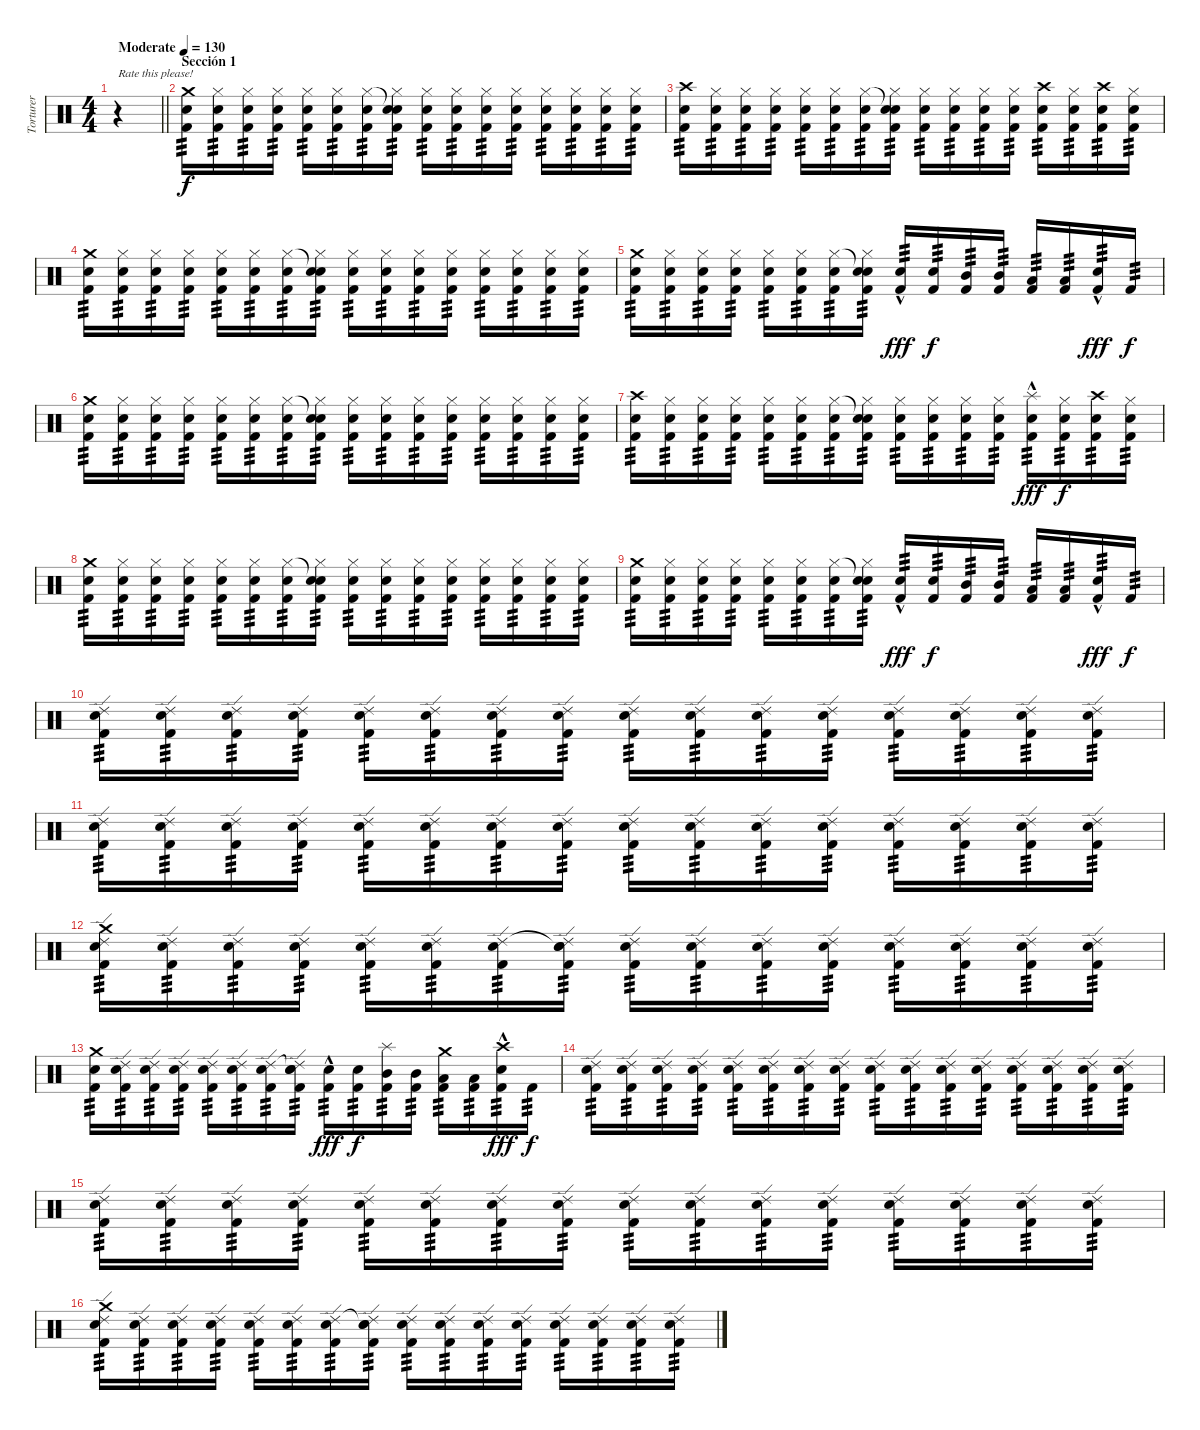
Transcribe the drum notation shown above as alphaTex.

\track ("Torturer" "Torturer") {instrument percussion}
\staff {score}
\articulation defaults
\ts (4 4)
\tempo (130 "Moderate")
\clef neutral
\barLineRight lightlight
\ks c
r.4{txt "Rate this please!" dy f} |
\section ("" "Sección 1")
("Crash medium (hit)" "Snare (hit) 2" "Kick (hit) 2").16{tp 3} ("Hi-Hat (closed)" "Snare (hit) 2" "Kick (hit) 2").16{tp 3} ("Hi-Hat (closed)" "Snare (hit) 2" "Kick (hit) 2").16{tp 3} ("Hi-Hat (closed)" "Snare (hit) 2" "Kick (hit) 2").16{tp 3} ("Hi-Hat (closed)" "Snare (hit) 2" "Kick (hit) 2").16{tp 3} ("Hi-Hat (closed)" "Snare (hit) 2" "Kick (hit) 2").16{tp 3} ("Hi-Hat (closed)" "Snare (hit) 2" "Kick (hit) 2").16{tp 3} ("Snare (hit)"{t} "Hi-Hat (closed)" "Snare (hit) 2" "Kick (hit) 2").16{tp 3} ("Hi-Hat (closed)" "Snare (hit) 2" "Kick (hit) 2").16{tp 3} ("Hi-Hat (closed)" "Snare (hit) 2" "Kick (hit) 2").16{tp 3} ("Hi-Hat (closed)" "Snare (hit) 2" "Kick (hit) 2").16{tp 3} ("Hi-Hat (closed)" "Snare (hit) 2" "Kick (hit) 2").16{tp 3} ("Hi-Hat (closed)" "Snare (hit) 2" "Kick (hit) 2").16{tp 3} ("Hi-Hat (closed)" "Snare (hit) 2" "Kick (hit) 2").16{tp 3} ("Hi-Hat (closed)" "Snare (hit) 2" "Kick (hit) 2").16{tp 3} ("Hi-Hat (closed)" "Snare (hit) 2" "Kick (hit) 2").16{tp 3} |
("Crash high (hit)" "Snare (hit) 2" "Kick (hit) 2").16{tp 3} ("Hi-Hat (closed)" "Snare (hit) 2" "Kick (hit) 2").16{tp 3} ("Hi-Hat (closed)" "Snare (hit) 2" "Kick (hit) 2").16{tp 3} ("Hi-Hat (closed)" "Snare (hit) 2" "Kick (hit) 2").16{tp 3} ("Hi-Hat (closed)" "Snare (hit) 2" "Kick (hit) 2").16{tp 3} ("Hi-Hat (closed)" "Snare (hit) 2" "Kick (hit) 2").16{tp 3} ("Hi-Hat (closed)" "Snare (hit) 2" "Kick (hit) 2").16{tp 3} ("Snare (hit)"{t} "Hi-Hat (closed)" "Snare (hit) 2" "Kick (hit) 2").16{tp 3} ("Hi-Hat (closed)" "Snare (hit) 2" "Kick (hit) 2").16{tp 3} ("Hi-Hat (closed)" "Snare (hit) 2" "Kick (hit) 2").16{tp 3} ("Hi-Hat (closed)" "Snare (hit) 2" "Kick (hit) 2").16{tp 3} ("Hi-Hat (closed)" "Snare (hit) 2" "Kick (hit) 2").16{tp 3} ("Crash high (hit)" "Snare (hit) 2" "Kick (hit) 2").16{tp 3} ("Hi-Hat (closed)" "Snare (hit) 2" "Kick (hit) 2").16{tp 3} ("Crash high (hit)" "Snare (hit) 2" "Kick (hit) 2").16{tp 3} ("Hi-Hat (closed)" "Snare (hit) 2" "Kick (hit) 2").16{tp 3} |
("Crash medium (hit)" "Snare (hit) 2" "Kick (hit) 2").16{tp 3} ("Hi-Hat (closed)" "Snare (hit) 2" "Kick (hit) 2").16{tp 3} ("Hi-Hat (closed)" "Snare (hit) 2" "Kick (hit) 2").16{tp 3} ("Hi-Hat (closed)" "Snare (hit) 2" "Kick (hit) 2").16{tp 3} ("Hi-Hat (closed)" "Snare (hit) 2" "Kick (hit) 2").16{tp 3} ("Hi-Hat (closed)" "Snare (hit) 2" "Kick (hit) 2").16{tp 3} ("Hi-Hat (closed)" "Snare (hit) 2" "Kick (hit) 2").16{tp 3} ("Snare (hit)"{t} "Hi-Hat (closed)" "Snare (hit) 2" "Kick (hit) 2").16{tp 3} ("Hi-Hat (closed)" "Snare (hit) 2" "Kick (hit) 2").16{tp 3} ("Hi-Hat (closed)" "Snare (hit) 2" "Kick (hit) 2").16{tp 3} ("Hi-Hat (closed)" "Snare (hit) 2" "Kick (hit) 2").16{tp 3} ("Hi-Hat (closed)" "Snare (hit) 2" "Kick (hit) 2").16{tp 3} ("Hi-Hat (closed)" "Snare (hit) 2" "Kick (hit) 2").16{tp 3} ("Hi-Hat (closed)" "Snare (hit) 2" "Kick (hit) 2").16{tp 3} ("Hi-Hat (closed)" "Snare (hit) 2" "Kick (hit) 2").16{tp 3} ("Hi-Hat (closed)" "Snare (hit) 2" "Kick (hit) 2").16{tp 3} |
("Crash medium (hit)" "Snare (hit) 2" "Kick (hit) 2").16{tp 3} ("Hi-Hat (closed)" "Snare (hit) 2" "Kick (hit) 2").16{tp 3} ("Hi-Hat (closed)" "Snare (hit) 2" "Kick (hit) 2").16{tp 3} ("Hi-Hat (closed)" "Snare (hit) 2" "Kick (hit) 2").16{tp 3} ("Hi-Hat (closed)" "Snare (hit) 2" "Kick (hit) 2").16{tp 3} ("Hi-Hat (closed)" "Snare (hit) 2" "Kick (hit) 2").16{tp 3} ("Hi-Hat (closed)" "Snare (hit) 2" "Kick (hit) 2").16{tp 3} ("Snare (hit)"{t} "Hi-Hat (closed)" "Snare (hit) 2" "Kick (hit) 2").16{tp 3} ("Snare (hit) 2"{hac} "Kick (hit) 2").16{tp 3 dy fff} ("Snare (hit) 2" "Kick (hit) 2").16{tp 3 dy f} ("Mid Tom (hit)" "Kick (hit) 2").16{tp 3} ("Mid Tom (hit)" "Kick (hit) 2").16{tp 3} ("Low Tom (hit)" "Kick (hit) 2").16{tp 3} ("Low Tom (hit)" "Kick (hit) 2").16{tp 3} ("Snare (hit) 2"{hac} "Kick (hit) 2").16{tp 3 dy fff} "Kick (hit) 2".16{tp 3 dy f} |
("Crash medium (hit)" "Snare (hit) 2" "Kick (hit) 2").16{tp 3} ("Hi-Hat (closed)" "Snare (hit) 2" "Kick (hit) 2").16{tp 3} ("Hi-Hat (closed)" "Snare (hit) 2" "Kick (hit) 2").16{tp 3} ("Hi-Hat (closed)" "Snare (hit) 2" "Kick (hit) 2").16{tp 3} ("Hi-Hat (closed)" "Snare (hit) 2" "Kick (hit) 2").16{tp 3} ("Hi-Hat (closed)" "Snare (hit) 2" "Kick (hit) 2").16{tp 3} ("Hi-Hat (closed)" "Snare (hit) 2" "Kick (hit) 2").16{tp 3} ("Snare (hit)"{t} "Hi-Hat (closed)" "Snare (hit) 2" "Kick (hit) 2").16{tp 3} ("Hi-Hat (closed)" "Snare (hit) 2" "Kick (hit) 2").16{tp 3} ("Hi-Hat (closed)" "Snare (hit) 2" "Kick (hit) 2").16{tp 3} ("Hi-Hat (closed)" "Snare (hit) 2" "Kick (hit) 2").16{tp 3} ("Hi-Hat (closed)" "Snare (hit) 2" "Kick (hit) 2").16{tp 3} ("Hi-Hat (closed)" "Snare (hit) 2" "Kick (hit) 2").16{tp 3} ("Hi-Hat (closed)" "Snare (hit) 2" "Kick (hit) 2").16{tp 3} ("Hi-Hat (closed)" "Snare (hit) 2" "Kick (hit) 2").16{tp 3} ("Hi-Hat (closed)" "Snare (hit) 2" "Kick (hit) 2").16{tp 3} |
("Crash high (hit)" "Snare (hit) 2" "Kick (hit) 2").16{tp 3} ("Hi-Hat (closed)" "Snare (hit) 2" "Kick (hit) 2").16{tp 3} ("Hi-Hat (closed)" "Snare (hit) 2" "Kick (hit) 2").16{tp 3} ("Hi-Hat (closed)" "Snare (hit) 2" "Kick (hit) 2").16{tp 3} ("Hi-Hat (closed)" "Snare (hit) 2" "Kick (hit) 2").16{tp 3} ("Hi-Hat (closed)" "Snare (hit) 2" "Kick (hit) 2").16{tp 3} ("Hi-Hat (closed)" "Snare (hit) 2" "Kick (hit) 2").16{tp 3} ("Snare (hit)"{t} "Hi-Hat (closed)" "Snare (hit) 2" "Kick (hit) 2").16{tp 3} ("Hi-Hat (closed)" "Snare (hit) 2" "Kick (hit) 2").16{tp 3} ("Hi-Hat (closed)" "Snare (hit) 2" "Kick (hit) 2").16{tp 3} ("Hi-Hat (closed)" "Snare (hit) 2" "Kick (hit) 2").16{tp 3} ("Hi-Hat (closed)" "Snare (hit) 2" "Kick (hit) 2").16{tp 3} ("Splash (hit)"{hac} "Snare (hit) 2" "Kick (hit) 2").16{tp 3 dy fff} ("Hi-Hat (closed)" "Snare (hit) 2" "Kick (hit) 2").16{tp 3 dy f} ("Crash high (hit)" "Snare (hit) 2" "Kick (hit) 2").16{tp 3} ("Hi-Hat (closed)" "Snare (hit) 2" "Kick (hit) 2").16{tp 3} |
("Crash medium (hit)" "Snare (hit) 2" "Kick (hit) 2").16{tp 3} ("Hi-Hat (closed)" "Snare (hit) 2" "Kick (hit) 2").16{tp 3} ("Hi-Hat (closed)" "Snare (hit) 2" "Kick (hit) 2").16{tp 3} ("Hi-Hat (closed)" "Snare (hit) 2" "Kick (hit) 2").16{tp 3} ("Hi-Hat (closed)" "Snare (hit) 2" "Kick (hit) 2").16{tp 3} ("Hi-Hat (closed)" "Snare (hit) 2" "Kick (hit) 2").16{tp 3} ("Hi-Hat (closed)" "Snare (hit) 2" "Kick (hit) 2").16{tp 3} ("Snare (hit)"{t} "Hi-Hat (closed)" "Snare (hit) 2" "Kick (hit) 2").16{tp 3} ("Hi-Hat (closed)" "Snare (hit) 2" "Kick (hit) 2").16{tp 3} ("Hi-Hat (closed)" "Snare (hit) 2" "Kick (hit) 2").16{tp 3} ("Hi-Hat (closed)" "Snare (hit) 2" "Kick (hit) 2").16{tp 3} ("Hi-Hat (closed)" "Snare (hit) 2" "Kick (hit) 2").16{tp 3} ("Hi-Hat (closed)" "Snare (hit) 2" "Kick (hit) 2").16{tp 3} ("Hi-Hat (closed)" "Snare (hit) 2" "Kick (hit) 2").16{tp 3} ("Hi-Hat (closed)" "Snare (hit) 2" "Kick (hit) 2").16{tp 3} ("Hi-Hat (closed)" "Snare (hit) 2" "Kick (hit) 2").16{tp 3} |
("Crash medium (hit)" "Snare (hit) 2" "Kick (hit) 2").16{tp 3} ("Hi-Hat (closed)" "Snare (hit) 2" "Kick (hit) 2").16{tp 3} ("Hi-Hat (closed)" "Snare (hit) 2" "Kick (hit) 2").16{tp 3} ("Hi-Hat (closed)" "Snare (hit) 2" "Kick (hit) 2").16{tp 3} ("Hi-Hat (closed)" "Snare (hit) 2" "Kick (hit) 2").16{tp 3} ("Hi-Hat (closed)" "Snare (hit) 2" "Kick (hit) 2").16{tp 3} ("Hi-Hat (closed)" "Snare (hit) 2" "Kick (hit) 2").16{tp 3} ("Snare (hit)"{t} "Hi-Hat (closed)" "Snare (hit) 2" "Kick (hit) 2").16{tp 3} ("Snare (hit) 2"{hac} "Kick (hit) 2").16{tp 3 dy fff} ("Snare (hit) 2" "Kick (hit) 2").16{tp 3 dy f} ("Mid Tom (hit)" "Kick (hit) 2").16{tp 3} ("Mid Tom (hit)" "Kick (hit) 2").16{tp 3} ("Low Tom (hit)" "Kick (hit) 2").16{tp 3} ("Low Tom (hit)" "Kick (hit) 2").16{tp 3} ("Snare (hit) 2"{hac} "Kick (hit) 2").16{tp 3 dy fff} "Kick (hit) 2".16{tp 3 dy f} |
("Ride (edge) 2" "Snare (hit) 2" "Kick (hit) 2").16{tp 3} ("Ride (edge) 2" "Snare (hit) 2" "Kick (hit) 2").16{tp 3} ("Ride (edge) 2" "Snare (hit) 2" "Kick (hit) 2").16{tp 3} ("Ride (edge) 2" "Snare (hit) 2" "Kick (hit) 2").16{tp 3} ("Ride (edge) 2" "Snare (hit) 2" "Kick (hit) 2").16{tp 3} ("Ride (edge) 2" "Snare (hit) 2" "Kick (hit) 2").16{tp 3} ("Ride (edge) 2" "Snare (hit) 2" "Kick (hit) 2").16{tp 3} ("Ride (edge) 2" "Snare (hit) 2" "Kick (hit) 2").16{tp 3} ("Ride (edge) 2" "Snare (hit) 2" "Kick (hit) 2").16{tp 3} ("Ride (edge) 2" "Snare (hit) 2" "Kick (hit) 2").16{tp 3} ("Ride (edge) 2" "Snare (hit) 2" "Kick (hit) 2").16{tp 3} ("Ride (edge) 2" "Snare (hit) 2" "Kick (hit) 2").16{tp 3} ("Ride (edge) 2" "Snare (hit) 2" "Kick (hit) 2").16{tp 3} ("Ride (edge) 2" "Snare (hit) 2" "Kick (hit) 2").16{tp 3} ("Ride (edge) 2" "Snare (hit) 2" "Kick (hit) 2").16{tp 3} ("Ride (edge) 2" "Snare (hit) 2" "Kick (hit) 2").16{tp 3} |
("Ride (edge) 2" "Snare (hit) 2" "Kick (hit) 2").16{tp 3} ("Ride (edge) 2" "Snare (hit) 2" "Kick (hit) 2").16{tp 3} ("Ride (edge) 2" "Snare (hit) 2" "Kick (hit) 2").16{tp 3} ("Ride (edge) 2" "Snare (hit) 2" "Kick (hit) 2").16{tp 3} ("Ride (edge) 2" "Snare (hit) 2" "Kick (hit) 2").16{tp 3} ("Ride (edge) 2" "Snare (hit) 2" "Kick (hit) 2").16{tp 3} ("Ride (edge) 2" "Snare (hit) 2" "Kick (hit) 2").16{tp 3} ("Ride (edge) 2" "Snare (hit) 2" "Kick (hit) 2").16{tp 3} ("Ride (edge) 2" "Snare (hit) 2" "Kick (hit) 2").16{tp 3} ("Ride (edge) 2" "Snare (hit) 2" "Kick (hit) 2").16{tp 3} ("Ride (edge) 2" "Snare (hit) 2" "Kick (hit) 2").16{tp 3} ("Ride (edge) 2" "Snare (hit) 2" "Kick (hit) 2").16{tp 3} ("Ride (edge) 2" "Snare (hit) 2" "Kick (hit) 2").16{tp 3} ("Ride (edge) 2" "Snare (hit) 2" "Kick (hit) 2").16{tp 3} ("Ride (edge) 2" "Snare (hit) 2" "Kick (hit) 2").16{tp 3} ("Ride (edge) 2" "Snare (hit) 2" "Kick (hit) 2").16{tp 3} |
("Crash medium (hit)" "Ride (edge) 2" "Snare (hit) 2" "Kick (hit) 2").16{tp 3} ("Ride (edge) 2" "Snare (hit) 2" "Kick (hit) 2").16{tp 3} ("Ride (edge) 2" "Snare (hit) 2" "Kick (hit) 2").16{tp 3} ("Ride (edge) 2" "Snare (hit) 2" "Kick (hit) 2").16{tp 3} ("Ride (edge) 2" "Snare (hit) 2" "Kick (hit) 2").16{tp 3} ("Ride (edge) 2" "Snare (hit) 2" "Kick (hit) 2").16{tp 3} ("Ride (edge) 2" "Snare (hit) 2" "Kick (hit) 2").16{tp 3} ("Snare (hit)"{t} "Ride (edge) 2" "Snare (hit) 2" "Kick (hit) 2").16{tp 3} ("Ride (edge) 2" "Snare (hit) 2" "Kick (hit) 2").16{tp 3} ("Ride (edge) 2" "Snare (hit) 2" "Kick (hit) 2").16{tp 3} ("Ride (edge) 2" "Snare (hit) 2" "Kick (hit) 2").16{tp 3} ("Ride (edge) 2" "Snare (hit) 2" "Kick (hit) 2").16{tp 3} ("Ride (edge) 2" "Snare (hit) 2" "Kick (hit) 2").16{tp 3} ("Ride (edge) 2" "Snare (hit) 2" "Kick (hit) 2").16{tp 3} ("Ride (edge) 2" "Snare (hit) 2" "Kick (hit) 2").16{tp 3} ("Ride (edge) 2" "Snare (hit) 2" "Kick (hit) 2").16{tp 3} |
("Crash medium (hit)" "Snare (hit) 2" "Kick (hit) 2").16{tp 3} ("Ride (edge) 2" "Snare (hit) 2" "Kick (hit) 2").16{tp 3} ("Ride (edge) 2" "Snare (hit) 2" "Kick (hit) 2").16{tp 3} ("Ride (edge) 2" "Snare (hit) 2" "Kick (hit) 2").16{tp 3} ("Ride (edge) 2" "Snare (hit) 2" "Kick (hit) 2").16{tp 3} ("Ride (edge) 2" "Snare (hit) 2" "Kick (hit) 2").16{tp 3} ("Ride (edge) 2" "Snare (hit) 2" "Kick (hit) 2").16{tp 3} ("Snare (hit)"{t} "Ride (edge) 2" "Snare (hit) 2" "Kick (hit) 2").16{tp 3} ("Snare (hit) 2"{hac} "Kick (hit) 2").16{tp 3 dy fff} ("Snare (hit) 2" "Kick (hit) 2").16{tp 3 dy f} ("Splash (hit)" "Mid Tom (hit)" "Kick (hit) 2").16{tp 3} ("Mid Tom (hit)" "Kick (hit) 2").16{tp 3} ("Crash medium (hit)" "Low Tom (hit)" "Kick (hit) 2").16{tp 3} ("Low Tom (hit)" "Kick (hit) 2").16{tp 3} ("Crash high (hit)" "Snare (hit) 2"{hac} "Kick (hit) 2").16{tp 3 dy fff} "Kick (hit) 2".16{tp 3 dy f} |
("Ride (edge) 2" "Snare (hit) 2" "Kick (hit) 2").16{tp 3} ("Ride (edge) 2" "Snare (hit) 2" "Kick (hit) 2").16{tp 3} ("Ride (edge) 2" "Snare (hit) 2" "Kick (hit) 2").16{tp 3} ("Ride (edge) 2" "Snare (hit) 2" "Kick (hit) 2").16{tp 3} ("Ride (edge) 2" "Snare (hit) 2" "Kick (hit) 2").16{tp 3} ("Ride (edge) 2" "Snare (hit) 2" "Kick (hit) 2").16{tp 3} ("Ride (edge) 2" "Snare (hit) 2" "Kick (hit) 2").16{tp 3} ("Ride (edge) 2" "Snare (hit) 2" "Kick (hit) 2").16{tp 3} ("Ride (edge) 2" "Snare (hit) 2" "Kick (hit) 2").16{tp 3} ("Ride (edge) 2" "Snare (hit) 2" "Kick (hit) 2").16{tp 3} ("Ride (edge) 2" "Snare (hit) 2" "Kick (hit) 2").16{tp 3} ("Ride (edge) 2" "Snare (hit) 2" "Kick (hit) 2").16{tp 3} ("Ride (edge) 2" "Snare (hit) 2" "Kick (hit) 2").16{tp 3} ("Ride (edge) 2" "Snare (hit) 2" "Kick (hit) 2").16{tp 3} ("Ride (edge) 2" "Snare (hit) 2" "Kick (hit) 2").16{tp 3} ("Ride (edge) 2" "Snare (hit) 2" "Kick (hit) 2").16{tp 3} |
("Ride (edge) 2" "Snare (hit) 2" "Kick (hit) 2").16{tp 3} ("Ride (edge) 2" "Snare (hit) 2" "Kick (hit) 2").16{tp 3} ("Ride (edge) 2" "Snare (hit) 2" "Kick (hit) 2").16{tp 3} ("Ride (edge) 2" "Snare (hit) 2" "Kick (hit) 2").16{tp 3} ("Ride (edge) 2" "Snare (hit) 2" "Kick (hit) 2").16{tp 3} ("Ride (edge) 2" "Snare (hit) 2" "Kick (hit) 2").16{tp 3} ("Ride (edge) 2" "Snare (hit) 2" "Kick (hit) 2").16{tp 3} ("Ride (edge) 2" "Snare (hit) 2" "Kick (hit) 2").16{tp 3} ("Ride (edge) 2" "Snare (hit) 2" "Kick (hit) 2").16{tp 3} ("Ride (edge) 2" "Snare (hit) 2" "Kick (hit) 2").16{tp 3} ("Ride (edge) 2" "Snare (hit) 2" "Kick (hit) 2").16{tp 3} ("Ride (edge) 2" "Snare (hit) 2" "Kick (hit) 2").16{tp 3} ("Ride (edge) 2" "Snare (hit) 2" "Kick (hit) 2").16{tp 3} ("Ride (edge) 2" "Snare (hit) 2" "Kick (hit) 2").16{tp 3} ("Ride (edge) 2" "Snare (hit) 2" "Kick (hit) 2").16{tp 3} ("Ride (edge) 2" "Snare (hit) 2" "Kick (hit) 2").16{tp 3} |
("Crash medium (hit)" "Ride (edge) 2" "Snare (hit) 2" "Kick (hit) 2").16{tp 3} ("Ride (edge) 2" "Snare (hit) 2" "Kick (hit) 2").16{tp 3} ("Ride (edge) 2" "Snare (hit) 2" "Kick (hit) 2").16{tp 3} ("Ride (edge) 2" "Snare (hit) 2" "Kick (hit) 2").16{tp 3} ("Ride (edge) 2" "Snare (hit) 2" "Kick (hit) 2").16{tp 3} ("Ride (edge) 2" "Snare (hit) 2" "Kick (hit) 2").16{tp 3} ("Ride (edge) 2" "Snare (hit) 2" "Kick (hit) 2").16{tp 3} ("Snare (hit)"{t} "Ride (edge) 2" "Snare (hit) 2" "Kick (hit) 2").16{tp 3} ("Ride (edge) 2" "Snare (hit) 2" "Kick (hit) 2").16{tp 3} ("Ride (edge) 2" "Snare (hit) 2" "Kick (hit) 2").16{tp 3} ("Ride (edge) 2" "Snare (hit) 2" "Kick (hit) 2").16{tp 3} ("Ride (edge) 2" "Snare (hit) 2" "Kick (hit) 2").16{tp 3} ("Ride (edge) 2" "Snare (hit) 2" "Kick (hit) 2").16{tp 3} ("Ride (edge) 2" "Snare (hit) 2" "Kick (hit) 2").16{tp 3} ("Ride (edge) 2" "Snare (hit) 2" "Kick (hit) 2").16{tp 3} ("Ride (edge) 2" "Snare (hit) 2" "Kick (hit) 2").16{tp 3}
